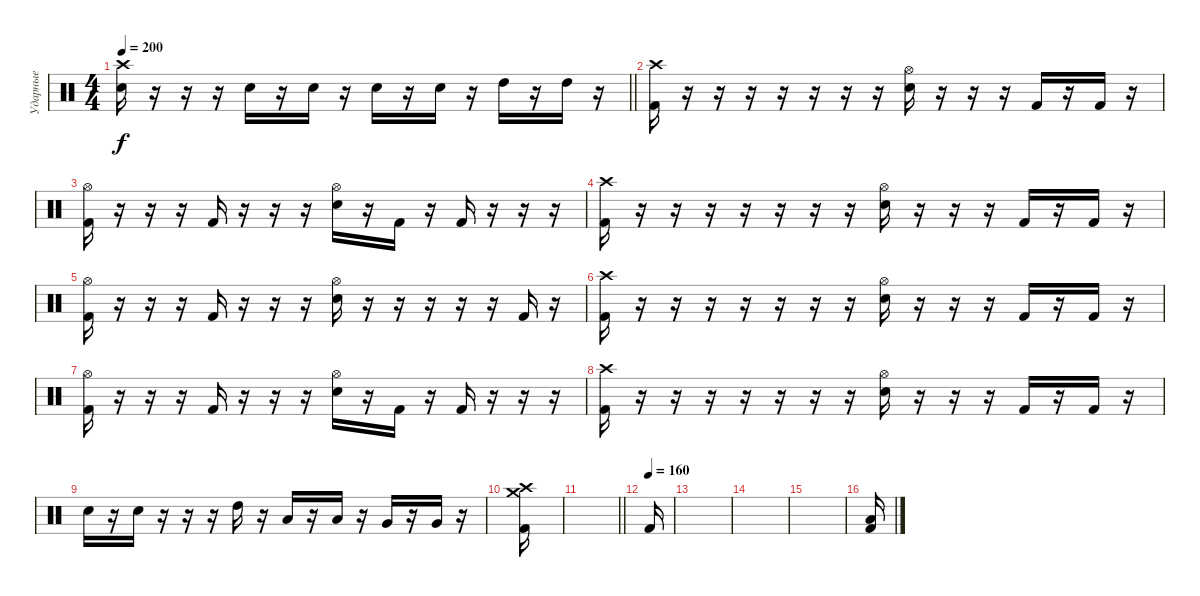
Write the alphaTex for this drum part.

\track ("Ударные" "Ударные") {instrument percussion}
\staff {score}
\articulation defaults
\ts (4 4)
\tempo 200
\clef neutral
\barLineRight lightlight
\ks c
("Crash high (hit)" "Electric Snare (hit)").16{dy f} r.16 r.16 r.16 "Electric Snare (hit)".16 r.16 "Electric Snare (hit)".16 r.16 "Electric Snare (hit)".16 r.16 "Electric Snare (hit)".16 r.16 "High Tom (hit)".16 r.16 "High Tom (hit)".16 r.16 |
\section ("" "")
("Crash high (hit)" "Kick (hit) 2").16 r.16 r.16 r.16 r.16 r.16 r.16 r.16 ("Hi-Hat (open)" "Electric Snare (hit)").16 r.16 r.16 r.16 "Kick (hit) 2".16 r.16 "Kick (hit) 2".16 r.16 |
("Hi-Hat (open)" "Kick (hit) 2").16 r.16 r.16 r.16 "Kick (hit) 2".16 r.16 r.16 r.16 ("Hi-Hat (open)" "Electric Snare (hit)").16 r.16 "Kick (hit) 2".16 r.16 "Kick (hit) 2".16 r.16 r.16 r.16 |
("Crash high (hit)" "Kick (hit) 2").16 r.16 r.16 r.16 r.16 r.16 r.16 r.16 ("Hi-Hat (open)" "Electric Snare (hit)").16 r.16 r.16 r.16 "Kick (hit) 2".16 r.16 "Kick (hit) 2".16 r.16 |
("Hi-Hat (open)" "Kick (hit) 2").16 r.16 r.16 r.16 "Kick (hit) 2".16 r.16 r.16 r.16 ("Hi-Hat (open)" "Electric Snare (hit)").16 r.16 r.16 r.16 r.16 r.16 "Kick (hit) 2".16 r.16 |
("Crash high (hit)" "Kick (hit) 2").16 r.16 r.16 r.16 r.16 r.16 r.16 r.16 ("Hi-Hat (open)" "Electric Snare (hit)").16 r.16 r.16 r.16 "Kick (hit) 2".16 r.16 "Kick (hit) 2".16 r.16 |
("Hi-Hat (open)" "Kick (hit) 2").16 r.16 r.16 r.16 "Kick (hit) 2".16 r.16 r.16 r.16 ("Hi-Hat (open)" "Electric Snare (hit)").16 r.16 "Kick (hit) 2".16 r.16 "Kick (hit) 2".16 r.16 r.16 r.16 |
("Crash high (hit)" "Kick (hit) 2").16 r.16 r.16 r.16 r.16 r.16 r.16 r.16 ("Hi-Hat (open)" "Electric Snare (hit)").16 r.16 r.16 r.16 "Kick (hit) 2".16 r.16 "Kick (hit) 2".16 r.16 |
"Electric Snare (hit)".16 r.16 "Electric Snare (hit)".16 r.16 r.16 r.16 "High Tom (hit)".16 r.16 "Low Tom (hit)".16 r.16 "Low Tom (hit)".16 r.16 "Very Low Tom (hit)".16 r.16 "Very Low Tom (hit)".16 r.16 |
("Crash medium (hit)" "Crash high (hit)" "Kick (hit) 2").16 |
\barLineRight lightlight
|
\section ("" "")
\tempo (160)
"Kick (hit) 2".16 |
|
|
|
("Low Tom (hit)" "Kick (hit) 2").16
